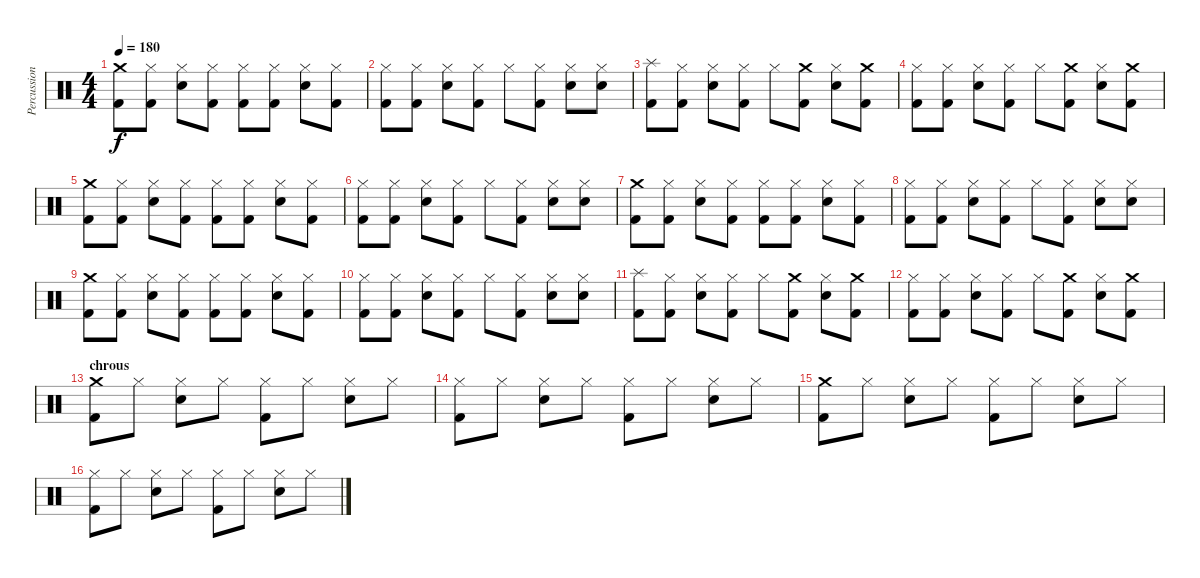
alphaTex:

\track ("Percussion" "Percussion") {instrument percussion}
\staff {score}
\articulation defaults
\ts (4 4)
\tempo 180
\clef neutral
\ks c
("Crash medium (hit)" "Kick (hit) 2").8{dy f} ("Hi-Hat (closed)" "Kick (hit) 2").8 ("Hi-Hat (closed)" "Electric Snare (hit)").8 ("Hi-Hat (closed)" "Kick (hit) 2").8 ("Hi-Hat (closed)" "Kick (hit) 2").8 ("Hi-Hat (closed)" "Kick (hit) 2").8 ("Hi-Hat (closed)" "Electric Snare (hit)").8 ("Hi-Hat (closed)" "Kick (hit) 2").8 |
("Hi-Hat (closed)" "Kick (hit) 2").8 ("Hi-Hat (closed)" "Kick (hit) 2").8 ("Hi-Hat (closed)" "Electric Snare (hit)").8 ("Hi-Hat (closed)" "Kick (hit) 2").8 "Hi-Hat (closed)".8 ("Hi-Hat (closed)" "Kick (hit) 2").8 ("Hi-Hat (closed)" "Electric Snare (hit)").8 ("Hi-Hat (closed)" "Electric Snare (hit)").8 |
("Splash (hit)" "Kick (hit) 2").8 ("Hi-Hat (closed)" "Kick (hit) 2").8 ("Hi-Hat (closed)" "Electric Snare (hit)").8 ("Hi-Hat (closed)" "Kick (hit) 2").8 "Hi-Hat (closed)".8 ("Crash medium (hit)" "Kick (hit) 2").8 ("Hi-Hat (closed)" "Electric Snare (hit)").8 ("Crash medium (hit)" "Kick (hit) 2").8 |
("Hi-Hat (closed)" "Kick (hit) 2").8 ("Hi-Hat (closed)" "Kick (hit) 2").8 ("Hi-Hat (closed)" "Electric Snare (hit)").8 ("Hi-Hat (closed)" "Kick (hit) 2").8 "Hi-Hat (closed)".8 ("Crash medium (hit)" "Kick (hit) 2").8 ("Hi-Hat (closed)" "Electric Snare (hit)").8 ("Crash medium (hit)" "Kick (hit) 2").8 |
("Crash medium (hit)" "Kick (hit) 2").8 ("Hi-Hat (closed)" "Kick (hit) 2").8 ("Hi-Hat (closed)" "Electric Snare (hit)").8 ("Hi-Hat (closed)" "Kick (hit) 2").8 ("Hi-Hat (closed)" "Kick (hit) 2").8 ("Hi-Hat (closed)" "Kick (hit) 2").8 ("Hi-Hat (closed)" "Electric Snare (hit)").8 ("Hi-Hat (closed)" "Kick (hit) 2").8 |
("Hi-Hat (closed)" "Kick (hit) 2").8 ("Hi-Hat (closed)" "Kick (hit) 2").8 ("Hi-Hat (closed)" "Electric Snare (hit)").8 ("Hi-Hat (closed)" "Kick (hit) 2").8 "Hi-Hat (closed)".8 ("Hi-Hat (closed)" "Kick (hit) 2").8 ("Hi-Hat (closed)" "Electric Snare (hit)").8 ("Hi-Hat (closed)" "Electric Snare (hit)").8 |
("Crash medium (hit)" "Kick (hit) 2").8 ("Hi-Hat (closed)" "Kick (hit) 2").8 ("Hi-Hat (closed)" "Electric Snare (hit)").8 ("Hi-Hat (closed)" "Kick (hit) 2").8 ("Hi-Hat (closed)" "Kick (hit) 2").8 ("Hi-Hat (closed)" "Kick (hit) 2").8 ("Hi-Hat (closed)" "Electric Snare (hit)").8 ("Hi-Hat (closed)" "Kick (hit) 2").8 |
("Hi-Hat (closed)" "Kick (hit) 2").8 ("Hi-Hat (closed)" "Kick (hit) 2").8 ("Hi-Hat (closed)" "Electric Snare (hit)").8 ("Hi-Hat (closed)" "Kick (hit) 2").8 "Hi-Hat (closed)".8 ("Hi-Hat (closed)" "Kick (hit) 2").8 ("Hi-Hat (closed)" "Electric Snare (hit)").8 ("Hi-Hat (closed)" "Electric Snare (hit)").8 |
("Crash medium (hit)" "Kick (hit) 2").8 ("Hi-Hat (closed)" "Kick (hit) 2").8 ("Hi-Hat (closed)" "Electric Snare (hit)").8 ("Hi-Hat (closed)" "Kick (hit) 2").8 ("Hi-Hat (closed)" "Kick (hit) 2").8 ("Hi-Hat (closed)" "Kick (hit) 2").8 ("Hi-Hat (closed)" "Electric Snare (hit)").8 ("Hi-Hat (closed)" "Kick (hit) 2").8 |
("Hi-Hat (closed)" "Kick (hit) 2").8 ("Hi-Hat (closed)" "Kick (hit) 2").8 ("Hi-Hat (closed)" "Electric Snare (hit)").8 ("Hi-Hat (closed)" "Kick (hit) 2").8 "Hi-Hat (closed)".8 ("Hi-Hat (closed)" "Kick (hit) 2").8 ("Hi-Hat (closed)" "Electric Snare (hit)").8 ("Hi-Hat (closed)" "Electric Snare (hit)").8 |
("Splash (hit)" "Kick (hit) 2").8 ("Hi-Hat (closed)" "Kick (hit) 2").8 ("Hi-Hat (closed)" "Electric Snare (hit)").8 ("Hi-Hat (closed)" "Kick (hit) 2").8 "Hi-Hat (closed)".8 ("Crash medium (hit)" "Kick (hit) 2").8 ("Hi-Hat (closed)" "Electric Snare (hit)").8 ("Crash medium (hit)" "Kick (hit) 2").8 |
("Hi-Hat (closed)" "Kick (hit) 2").8 ("Hi-Hat (closed)" "Kick (hit) 2").8 ("Hi-Hat (closed)" "Electric Snare (hit)").8 ("Hi-Hat (closed)" "Kick (hit) 2").8 "Hi-Hat (closed)".8 ("Crash medium (hit)" "Kick (hit) 2").8 ("Hi-Hat (closed)" "Electric Snare (hit)").8 ("Crash medium (hit)" "Kick (hit) 2").8 |
\section ("" "chrous")
("Crash medium (hit)" "Kick (hit) 2").8 "Hi-Hat (closed)".8 ("Hi-Hat (closed)" "Electric Snare (hit)").8 "Hi-Hat (closed)".8 ("Hi-Hat (closed)" "Kick (hit) 2").8 "Hi-Hat (closed)".8 ("Hi-Hat (closed)" "Electric Snare (hit)").8 "Hi-Hat (closed)".8 |
("Hi-Hat (closed)" "Kick (hit) 2").8 "Hi-Hat (closed)".8 ("Hi-Hat (closed)" "Electric Snare (hit)").8 "Hi-Hat (closed)".8 ("Hi-Hat (closed)" "Kick (hit) 2").8 "Hi-Hat (closed)".8 ("Hi-Hat (closed)" "Electric Snare (hit)").8 "Hi-Hat (closed)".8 |
("Crash medium (hit)" "Kick (hit) 2").8 "Hi-Hat (closed)".8 ("Hi-Hat (closed)" "Electric Snare (hit)").8 "Hi-Hat (closed)".8 ("Hi-Hat (closed)" "Kick (hit) 2").8 "Hi-Hat (closed)".8 ("Hi-Hat (closed)" "Electric Snare (hit)").8 "Hi-Hat (closed)".8 |
("Hi-Hat (closed)" "Kick (hit) 2").8 "Hi-Hat (closed)".8 ("Hi-Hat (closed)" "Electric Snare (hit)").8 "Hi-Hat (closed)".8 ("Hi-Hat (closed)" "Kick (hit) 2").8 "Hi-Hat (closed)".8 ("Hi-Hat (closed)" "Electric Snare (hit)").8 "Hi-Hat (closed)".8
